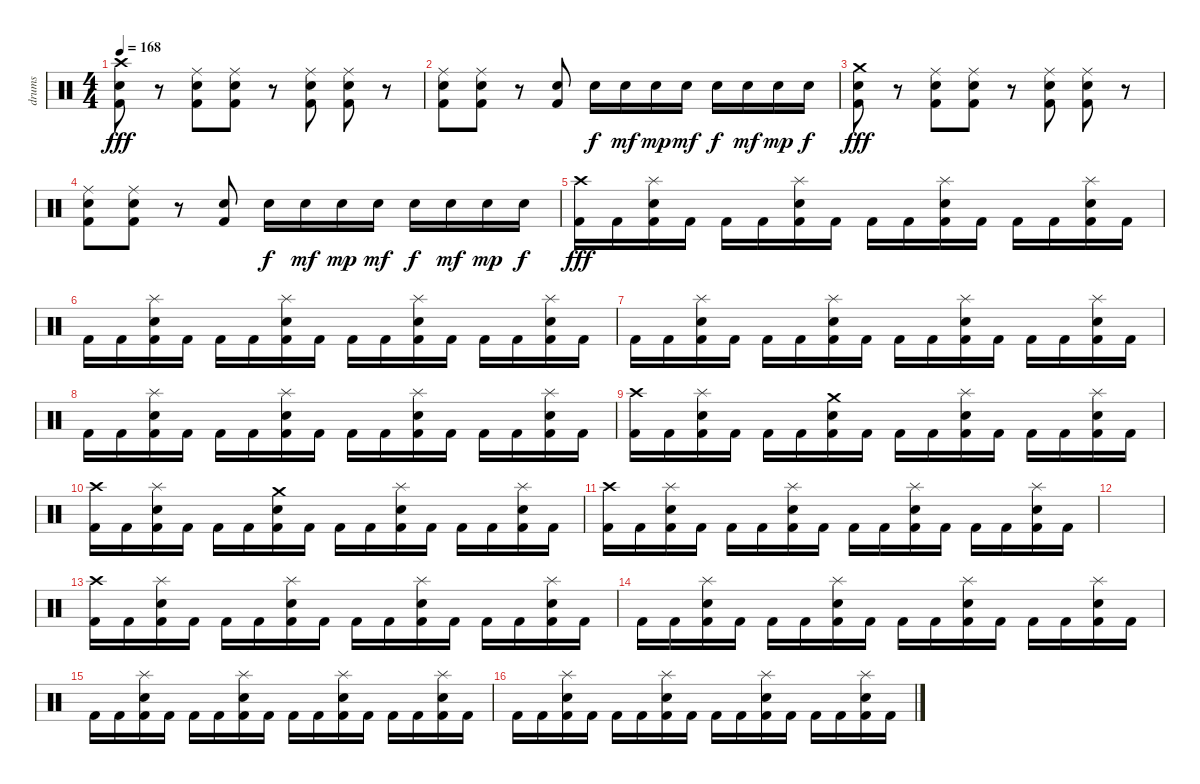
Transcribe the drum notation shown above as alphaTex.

\track ("drums" "drums") {instrument percussion}
\staff {score}
\articulation defaults
\ts (4 4)
\tempo 168
\clef neutral
\ks c
("Crash high (hit)" "Snare (hit) 2" "Kick (hit) 2").8{dy fff} r.8 ("Ride (middle)" "Snare (hit) 2" "Kick (hit) 2").8 ("Ride (middle)" "Snare (hit) 2" "Kick (hit) 2").8 r.8 ("Ride (middle)" "Snare (hit) 2" "Kick (hit) 2").8 ("Ride (middle)" "Snare (hit) 2" "Kick (hit) 2").8 r.8 |
("Ride (middle)" "Snare (hit) 2" "Kick (hit) 2").8 ("Ride (middle)" "Snare (hit) 2" "Kick (hit) 2").8 r.8 ("Snare (hit) 2" "Kick (hit) 2").8 "Snare (hit) 2".16{dy f} "Snare (hit) 2".16{dy mf} "Snare (hit) 2".16{dy mp} "Snare (hit) 2".16{dy mf} "Snare (hit) 2".16{dy f} "Snare (hit) 2".16{dy mf} "Snare (hit) 2".16{dy mp} "Snare (hit) 2".16{dy f} |
("Crash medium (hit)" "Snare (hit) 2" "Kick (hit) 2").8{dy fff} r.8 ("Ride (middle)" "Snare (hit) 2" "Kick (hit) 2").8 ("Ride (middle)" "Snare (hit) 2" "Kick (hit) 2").8 r.8 ("Ride (middle)" "Snare (hit) 2" "Kick (hit) 2").8 ("Ride (middle)" "Snare (hit) 2" "Kick (hit) 2").8 r.8 |
("Ride (middle)" "Snare (hit) 2" "Kick (hit) 2").8 ("Ride (middle)" "Snare (hit) 2" "Kick (hit) 2").8 r.8 ("Snare (hit) 2" "Kick (hit) 2").8 "Snare (hit) 2".16{dy f} "Snare (hit) 2".16{dy mf} "Snare (hit) 2".16{dy mp} "Snare (hit) 2".16{dy mf} "Snare (hit) 2".16{dy f} "Snare (hit) 2".16{dy mf} "Snare (hit) 2".16{dy mp} "Snare (hit) 2".16{dy f} |
("Crash high (hit)" "Kick (hit) 2").16{dy fff} "Kick (hit) 2".16 ("Splash (hit)" "Snare (hit) 2" "Kick (hit) 2").16 "Kick (hit) 2".16 "Kick (hit) 2".16 "Kick (hit) 2".16 ("Splash (hit)" "Snare (hit) 2" "Kick (hit) 2").16 "Kick (hit) 2".16 "Kick (hit) 2".16 "Kick (hit) 2".16 ("Splash (hit)" "Snare (hit) 2" "Kick (hit) 2").16 "Kick (hit) 2".16 "Kick (hit) 2".16 "Kick (hit) 2".16 ("Splash (hit)" "Snare (hit) 2" "Kick (hit) 2").16 "Kick (hit) 2".16 |
"Kick (hit) 2".16 "Kick (hit) 2".16 ("Splash (hit)" "Snare (hit) 2" "Kick (hit) 2").16 "Kick (hit) 2".16 "Kick (hit) 2".16 "Kick (hit) 2".16 ("Splash (hit)" "Snare (hit) 2" "Kick (hit) 2").16 "Kick (hit) 2".16 "Kick (hit) 2".16 "Kick (hit) 2".16 ("Splash (hit)" "Snare (hit) 2" "Kick (hit) 2").16 "Kick (hit) 2".16 "Kick (hit) 2".16 "Kick (hit) 2".16 ("Splash (hit)" "Snare (hit) 2" "Kick (hit) 2").16 "Kick (hit) 2".16 |
"Kick (hit) 2".16 "Kick (hit) 2".16 ("Splash (hit)" "Snare (hit) 2" "Kick (hit) 2").16 "Kick (hit) 2".16 "Kick (hit) 2".16 "Kick (hit) 2".16 ("Splash (hit)" "Snare (hit) 2" "Kick (hit) 2").16 "Kick (hit) 2".16 "Kick (hit) 2".16 "Kick (hit) 2".16 ("Splash (hit)" "Snare (hit) 2" "Kick (hit) 2").16 "Kick (hit) 2".16 "Kick (hit) 2".16 "Kick (hit) 2".16 ("Splash (hit)" "Snare (hit) 2" "Kick (hit) 2").16 "Kick (hit) 2".16 |
"Kick (hit) 2".16 "Kick (hit) 2".16 ("Splash (hit)" "Snare (hit) 2" "Kick (hit) 2").16 "Kick (hit) 2".16 "Kick (hit) 2".16 "Kick (hit) 2".16 ("Splash (hit)" "Snare (hit) 2" "Kick (hit) 2").16 "Kick (hit) 2".16 "Kick (hit) 2".16 "Kick (hit) 2".16 ("Splash (hit)" "Snare (hit) 2" "Kick (hit) 2").16 "Kick (hit) 2".16 "Kick (hit) 2".16 "Kick (hit) 2".16 ("Splash (hit)" "Snare (hit) 2" "Kick (hit) 2").16 "Kick (hit) 2".16 |
("Crash high (hit)" "Kick (hit) 2").16 "Kick (hit) 2".16 ("Splash (hit)" "Snare (hit) 2" "Kick (hit) 2").16 "Kick (hit) 2".16 "Kick (hit) 2".16 "Kick (hit) 2".16 ("Crash medium (hit)" "Snare (hit) 2" "Kick (hit) 2").16 "Kick (hit) 2".16 "Kick (hit) 2".16 "Kick (hit) 2".16 ("Splash (hit)" "Snare (hit) 2" "Kick (hit) 2").16 "Kick (hit) 2".16 "Kick (hit) 2".16 "Kick (hit) 2".16 ("Splash (hit)" "Snare (hit) 2" "Kick (hit) 2").16 "Kick (hit) 2".16 |
("Crash high (hit)" "Kick (hit) 2").16 "Kick (hit) 2".16 ("Splash (hit)" "Snare (hit) 2" "Kick (hit) 2").16 "Kick (hit) 2".16 "Kick (hit) 2".16 "Kick (hit) 2".16 ("Crash medium (hit)" "Snare (hit) 2" "Kick (hit) 2").16 "Kick (hit) 2".16 "Kick (hit) 2".16 "Kick (hit) 2".16 ("Splash (hit)" "Snare (hit) 2" "Kick (hit) 2").16 "Kick (hit) 2".16 "Kick (hit) 2".16 "Kick (hit) 2".16 ("Splash (hit)" "Snare (hit) 2" "Kick (hit) 2").16 "Kick (hit) 2".16 |
("Crash high (hit)" "Kick (hit) 2").16 "Kick (hit) 2".16 ("Splash (hit)" "Snare (hit) 2" "Kick (hit) 2").16 "Kick (hit) 2".16 "Kick (hit) 2".16 "Kick (hit) 2".16 ("Splash (hit)" "Snare (hit) 2" "Kick (hit) 2").16 "Kick (hit) 2".16 "Kick (hit) 2".16 "Kick (hit) 2".16 ("Splash (hit)" "Snare (hit) 2" "Kick (hit) 2").16 "Kick (hit) 2".16 "Kick (hit) 2".16 "Kick (hit) 2".16 ("Splash (hit)" "Snare (hit) 2" "Kick (hit) 2").16 "Kick (hit) 2".16 |
|
("Crash high (hit)" "Kick (hit) 2").16 "Kick (hit) 2".16 ("Splash (hit)" "Snare (hit) 2" "Kick (hit) 2").16 "Kick (hit) 2".16 "Kick (hit) 2".16 "Kick (hit) 2".16 ("Splash (hit)" "Snare (hit) 2" "Kick (hit) 2").16 "Kick (hit) 2".16 "Kick (hit) 2".16 "Kick (hit) 2".16 ("Splash (hit)" "Snare (hit) 2" "Kick (hit) 2").16 "Kick (hit) 2".16 "Kick (hit) 2".16 "Kick (hit) 2".16 ("Splash (hit)" "Snare (hit) 2" "Kick (hit) 2").16 "Kick (hit) 2".16 |
"Kick (hit) 2".16 "Kick (hit) 2".16 ("Splash (hit)" "Snare (hit) 2" "Kick (hit) 2").16 "Kick (hit) 2".16 "Kick (hit) 2".16 "Kick (hit) 2".16 ("Splash (hit)" "Snare (hit) 2" "Kick (hit) 2").16 "Kick (hit) 2".16 "Kick (hit) 2".16 "Kick (hit) 2".16 ("Splash (hit)" "Snare (hit) 2" "Kick (hit) 2").16 "Kick (hit) 2".16 "Kick (hit) 2".16 "Kick (hit) 2".16 ("Splash (hit)" "Snare (hit) 2" "Kick (hit) 2").16 "Kick (hit) 2".16 |
"Kick (hit) 2".16 "Kick (hit) 2".16 ("Splash (hit)" "Snare (hit) 2" "Kick (hit) 2").16 "Kick (hit) 2".16 "Kick (hit) 2".16 "Kick (hit) 2".16 ("Splash (hit)" "Snare (hit) 2" "Kick (hit) 2").16 "Kick (hit) 2".16 "Kick (hit) 2".16 "Kick (hit) 2".16 ("Splash (hit)" "Snare (hit) 2" "Kick (hit) 2").16 "Kick (hit) 2".16 "Kick (hit) 2".16 "Kick (hit) 2".16 ("Splash (hit)" "Snare (hit) 2" "Kick (hit) 2").16 "Kick (hit) 2".16 |
"Kick (hit) 2".16 "Kick (hit) 2".16 ("Splash (hit)" "Snare (hit) 2" "Kick (hit) 2").16 "Kick (hit) 2".16 "Kick (hit) 2".16 "Kick (hit) 2".16 ("Splash (hit)" "Snare (hit) 2" "Kick (hit) 2").16 "Kick (hit) 2".16 "Kick (hit) 2".16 "Kick (hit) 2".16 ("Splash (hit)" "Snare (hit) 2" "Kick (hit) 2").16 "Kick (hit) 2".16 "Kick (hit) 2".16 "Kick (hit) 2".16 ("Splash (hit)" "Snare (hit) 2" "Kick (hit) 2").16 "Kick (hit) 2".16
